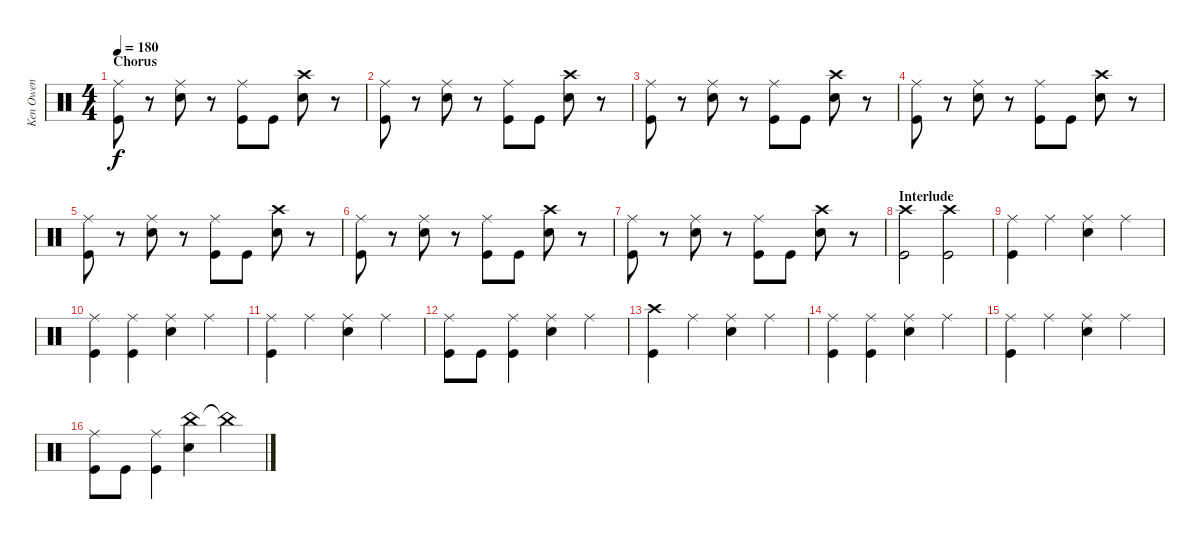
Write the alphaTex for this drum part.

\track ("Ken Owen" "Ken Owen") {instrument percussion}
\staff {score}
\articulation defaults
\ts (4 4)
\section ("" "Chorus")
\tempo 180
\clef neutral
\ks c
("Ride (middle)" "Kick (hit)").8{dy f} r.8 ("Ride (middle)" "Snare (hit) 2").8 r.8 ("Ride (middle)" "Kick (hit)").8 "Kick (hit)".8 ("Crash high (hit)" "Snare (hit) 2").8 r.8 |
("Ride (middle)" "Kick (hit)").8 r.8 ("Ride (middle)" "Snare (hit) 2").8 r.8 ("Ride (middle)" "Kick (hit)").8 "Kick (hit)".8 ("Crash high (hit)" "Snare (hit) 2").8 r.8 |
("Ride (middle)" "Kick (hit)").8 r.8 ("Ride (middle)" "Snare (hit) 2").8 r.8 ("Ride (middle)" "Kick (hit)").8 "Kick (hit)".8 ("Crash high (hit)" "Snare (hit) 2").8 r.8 |
("Ride (middle)" "Kick (hit)").8 r.8 ("Ride (middle)" "Snare (hit) 2").8 r.8 ("Ride (middle)" "Kick (hit)").8 "Kick (hit)".8 ("Crash high (hit)" "Snare (hit) 2").8 r.8 |
("Ride (middle)" "Kick (hit)").8 r.8 ("Ride (middle)" "Snare (hit) 2").8 r.8 ("Ride (middle)" "Kick (hit)").8 "Kick (hit)".8 ("Crash high (hit)" "Snare (hit) 2").8 r.8 |
("Ride (middle)" "Kick (hit)").8 r.8 ("Ride (middle)" "Snare (hit) 2").8 r.8 ("Ride (middle)" "Kick (hit)").8 "Kick (hit)".8 ("Crash high (hit)" "Snare (hit) 2").8 r.8 |
("Ride (middle)" "Kick (hit)").8 r.8 ("Ride (middle)" "Snare (hit) 2").8 r.8 ("Ride (middle)" "Kick (hit)").8 "Kick (hit)".8 ("Crash high (hit)" "Snare (hit) 2").8 r.8 |
\section ("" "Interlude")
("Crash high (hit)" "Kick (hit)").2 ("Crash high (hit)" "Kick (hit)").2 |
("Ride (middle)" "Kick (hit)").4 "Ride (middle)".4 ("Ride (middle)" "Snare (hit) 2").4 "Ride (middle)".4 |
("Ride (middle)" "Kick (hit)").4 ("Ride (middle)" "Kick (hit)").4 ("Ride (middle)" "Snare (hit) 2").4 "Ride (middle)".4 |
("Ride (middle)" "Kick (hit)").4 "Ride (middle)".4 ("Ride (middle)" "Snare (hit) 2").4 "Ride (middle)".4 |
("Ride (middle)" "Kick (hit)").8 "Kick (hit)".8 ("Ride (middle)" "Kick (hit)").4 ("Ride (middle)" "Snare (hit) 2").4 "Ride (middle)".4 |
("Crash high (hit)" "Kick (hit)").4 "Ride (middle)".4 ("Ride (middle)" "Snare (hit) 2").4 "Ride (middle)".4 |
("Ride (middle)" "Kick (hit)").4 ("Ride (middle)" "Kick (hit)").4 ("Ride (middle)" "Snare (hit) 2").4 "Ride (middle)".4 |
("Ride (middle)" "Kick (hit)").4 "Ride (middle)".4 ("Ride (middle)" "Snare (hit) 2").4 "Ride (middle)".4 |
("Ride (middle)" "Kick (hit)").8 "Kick (hit)".8 ("Ride (middle)" "Kick (hit)").4 ("China (hit)" "Snare (hit) 2").4 "China (hit)"{t}.4
